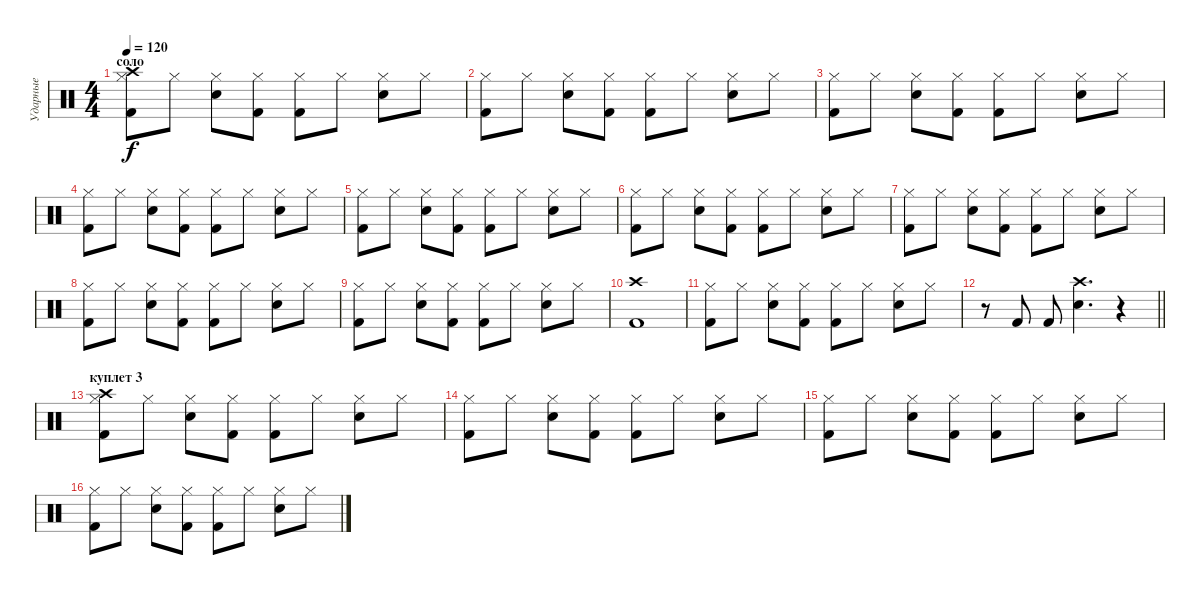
\track ("Ударные" "Ударные") {instrument percussion}
\staff
\articulation defaults
\ts (4 4)
\section ("" "соло ")
\tempo 120
\clef neutral
\ks c
("Crash high (hit)" "Hi-Hat (closed)" "Kick (hit) 2").8{dy f} "Hi-Hat (closed)".8 ("Hi-Hat (closed)" "Snare (hit) 2").8 ("Hi-Hat (closed)" "Kick (hit) 2").8 ("Hi-Hat (closed)" "Kick (hit) 2").8 "Hi-Hat (closed)".8 ("Hi-Hat (closed)" "Snare (hit) 2").8 "Hi-Hat (closed)".8 |
("Hi-Hat (closed)" "Kick (hit) 2").8 "Hi-Hat (closed)".8 ("Hi-Hat (closed)" "Snare (hit) 2").8 ("Hi-Hat (closed)" "Kick (hit) 2").8 ("Hi-Hat (closed)" "Kick (hit) 2").8 "Hi-Hat (closed)".8 ("Hi-Hat (closed)" "Snare (hit) 2").8 "Hi-Hat (closed)".8 |
("Hi-Hat (closed)" "Kick (hit) 2").8 "Hi-Hat (closed)".8 ("Hi-Hat (closed)" "Snare (hit) 2").8 ("Hi-Hat (closed)" "Kick (hit) 2").8 ("Hi-Hat (closed)" "Kick (hit) 2").8 "Hi-Hat (closed)".8 ("Hi-Hat (closed)" "Snare (hit) 2").8 "Hi-Hat (closed)".8 |
("Hi-Hat (closed)" "Kick (hit) 2").8 "Hi-Hat (closed)".8 ("Hi-Hat (closed)" "Snare (hit) 2").8 ("Hi-Hat (closed)" "Kick (hit) 2").8 ("Hi-Hat (closed)" "Kick (hit) 2").8 "Hi-Hat (closed)".8 ("Hi-Hat (closed)" "Snare (hit) 2").8 "Hi-Hat (closed)".8 |
("Hi-Hat (closed)" "Kick (hit) 2").8 "Hi-Hat (closed)".8 ("Hi-Hat (closed)" "Snare (hit) 2").8 ("Hi-Hat (closed)" "Kick (hit) 2").8 ("Hi-Hat (closed)" "Kick (hit) 2").8 "Hi-Hat (closed)".8 ("Hi-Hat (closed)" "Snare (hit) 2").8 "Hi-Hat (closed)".8 |
("Hi-Hat (closed)" "Kick (hit) 2").8 "Hi-Hat (closed)".8 ("Hi-Hat (closed)" "Snare (hit) 2").8 ("Hi-Hat (closed)" "Kick (hit) 2").8 ("Hi-Hat (closed)" "Kick (hit) 2").8 "Hi-Hat (closed)".8 ("Hi-Hat (closed)" "Snare (hit) 2").8 "Hi-Hat (closed)".8 |
("Hi-Hat (closed)" "Kick (hit) 2").8 "Hi-Hat (closed)".8 ("Hi-Hat (closed)" "Snare (hit) 2").8 ("Hi-Hat (closed)" "Kick (hit) 2").8 ("Hi-Hat (closed)" "Kick (hit) 2").8 "Hi-Hat (closed)".8 ("Hi-Hat (closed)" "Snare (hit) 2").8 "Hi-Hat (closed)".8 |
("Hi-Hat (closed)" "Kick (hit) 2").8 "Hi-Hat (closed)".8 ("Hi-Hat (closed)" "Snare (hit) 2").8 ("Hi-Hat (closed)" "Kick (hit) 2").8 ("Hi-Hat (closed)" "Kick (hit) 2").8 "Hi-Hat (closed)".8 ("Hi-Hat (closed)" "Snare (hit) 2").8 "Hi-Hat (closed)".8 |
("Hi-Hat (closed)" "Kick (hit) 2").8 "Hi-Hat (closed)".8 ("Hi-Hat (closed)" "Snare (hit) 2").8 ("Hi-Hat (closed)" "Kick (hit) 2").8 ("Hi-Hat (closed)" "Kick (hit) 2").8 "Hi-Hat (closed)".8 ("Hi-Hat (closed)" "Snare (hit) 2").8 "Hi-Hat (closed)".8 |
("Crash high (hit)" "Kick (hit) 2").1 |
("Hi-Hat (closed)" "Kick (hit) 2").8 "Hi-Hat (closed)".8 ("Hi-Hat (closed)" "Snare (hit) 2").8 ("Hi-Hat (closed)" "Kick (hit) 2").8 ("Hi-Hat (closed)" "Kick (hit) 2").8 "Hi-Hat (closed)".8 ("Hi-Hat (closed)" "Snare (hit) 2").8 "Hi-Hat (closed)".8 |
\barLineRight lightlight
r.8 "Kick (hit) 2".8 "Kick (hit) 2".8 ("Crash high (hit)" "Snare (hit) 2").4{d} r.4 |
\section ("" "куплет 3")
("Crash high (hit)" "Hi-Hat (closed)" "Kick (hit) 2").8 "Hi-Hat (closed)".8 ("Hi-Hat (closed)" "Snare (hit) 2").8 ("Hi-Hat (closed)" "Kick (hit) 2").8 ("Hi-Hat (closed)" "Kick (hit) 2").8 "Hi-Hat (closed)".8 ("Hi-Hat (closed)" "Snare (hit) 2").8 "Hi-Hat (closed)".8 |
("Hi-Hat (closed)" "Kick (hit) 2").8 "Hi-Hat (closed)".8 ("Hi-Hat (closed)" "Snare (hit) 2").8 ("Hi-Hat (closed)" "Kick (hit) 2").8 ("Hi-Hat (closed)" "Kick (hit) 2").8 "Hi-Hat (closed)".8 ("Hi-Hat (closed)" "Snare (hit) 2").8 "Hi-Hat (closed)".8 |
("Hi-Hat (closed)" "Kick (hit) 2").8 "Hi-Hat (closed)".8 ("Hi-Hat (closed)" "Snare (hit) 2").8 ("Hi-Hat (closed)" "Kick (hit) 2").8 ("Hi-Hat (closed)" "Kick (hit) 2").8 "Hi-Hat (closed)".8 ("Hi-Hat (closed)" "Snare (hit) 2").8 "Hi-Hat (closed)".8 |
("Hi-Hat (closed)" "Kick (hit) 2").8 "Hi-Hat (closed)".8 ("Hi-Hat (closed)" "Snare (hit) 2").8 ("Hi-Hat (closed)" "Kick (hit) 2").8 ("Hi-Hat (closed)" "Kick (hit) 2").8 "Hi-Hat (closed)".8 ("Hi-Hat (closed)" "Snare (hit) 2").8 "Hi-Hat (closed)".8
